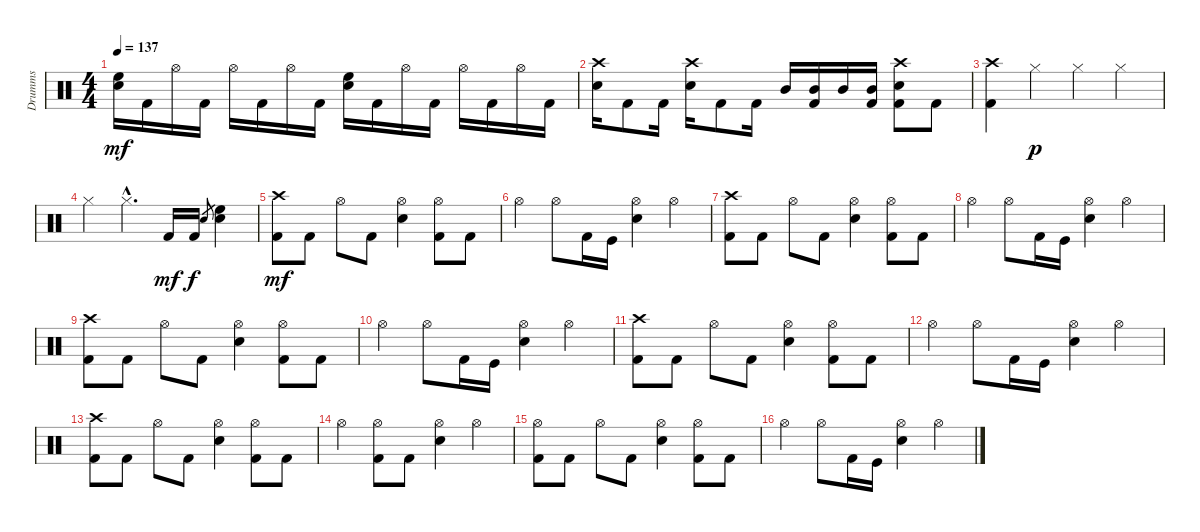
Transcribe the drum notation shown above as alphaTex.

\track ("Drumms" "Drumms") {instrument percussion}
\staff {score}
\articulation defaults
\ts (4 4)
\tempo 137
\clef neutral
\ks c
("Snare (hit) 2" "High Floor Tom (hit)").16{dy mf} "Kick (hit) 2".16 "Hi-Hat (open)".16 "Kick (hit) 2".16 "Hi-Hat (open)".16 "Kick (hit) 2".16 "Hi-Hat (open)".16 "Kick (hit) 2".16 ("Snare (hit) 2" "High Floor Tom (hit)").16 "Kick (hit) 2".16 "Hi-Hat (open)".16 "Kick (hit) 2".16 "Hi-Hat (open)".16 "Kick (hit) 2".16 "Hi-Hat (open)".16 "Kick (hit) 2".16 |
("Snare (hit) 2" "Crash high (hit)").16 "Kick (hit) 2".8 "Kick (hit) 2".16 ("Snare (hit) 2" "Crash high (hit)").16 "Kick (hit) 2".8 "Kick (hit) 2".16 "Mid Tom (hit)".16 ("Mid Tom (hit)" "Kick (hit) 2").16 "Mid Tom (hit)".16 ("Kick (hit) 2" "Mid Tom (hit)").16 ("Crash high (hit)" "Snare (hit) 2" "Kick (hit) 2").8 "Kick (hit) 2".8 |
("Crash high (hit)" "Kick (hit) 2").4 "Hi-Hat (closed)".4{dy p} "Hi-Hat (closed)".4 "Hi-Hat (closed)".4 |
"Hi-Hat (closed)".4 "Hi-Hat (closed)"{hac}.4{d} "Kick (hit) 2".16{dy mf} "Kick (hit) 2".16{dy f} "Snare (hit) 2".8{gr} ("Snare (hit) 2" "High Floor Tom (hit)").4 |
\section ("" "")
("Crash high (hit)" "Kick (hit) 2").8{dy mf} "Kick (hit) 2".8 "Hi-Hat (open)".8 "Kick (hit) 2".8 ("Snare (hit) 2" "Hi-Hat (open)").4 ("Hi-Hat (open)" "Kick (hit) 2").8 "Kick (hit) 2".8 |
"Hi-Hat (open)".4 "Hi-Hat (open)".8 "Kick (hit) 2".16 "Kick (hit)".16 ("Hi-Hat (open)" "Snare (hit) 2").4 "Hi-Hat (open)".4 |
("Crash high (hit)" "Kick (hit) 2").8 "Kick (hit) 2".8 "Hi-Hat (open)".8 "Kick (hit) 2".8 ("Snare (hit) 2" "Hi-Hat (open)").4 ("Hi-Hat (open)" "Kick (hit) 2").8 "Kick (hit) 2".8 |
"Hi-Hat (open)".4 "Hi-Hat (open)".8 "Kick (hit) 2".16 "Kick (hit)".16 ("Hi-Hat (open)" "Snare (hit) 2").4 "Hi-Hat (open)".4 |
("Crash high (hit)" "Kick (hit) 2").8 "Kick (hit) 2".8 "Hi-Hat (open)".8 "Kick (hit) 2".8 ("Snare (hit) 2" "Hi-Hat (open)").4 ("Hi-Hat (open)" "Kick (hit) 2").8 "Kick (hit) 2".8 |
"Hi-Hat (open)".4 "Hi-Hat (open)".8 "Kick (hit) 2".16 "Kick (hit)".16 ("Hi-Hat (open)" "Snare (hit) 2").4 "Hi-Hat (open)".4 |
("Crash high (hit)" "Kick (hit) 2").8 "Kick (hit) 2".8 "Hi-Hat (open)".8 "Kick (hit) 2".8 ("Snare (hit) 2" "Hi-Hat (open)").4 ("Hi-Hat (open)" "Kick (hit) 2").8 "Kick (hit) 2".8 |
"Hi-Hat (open)".4 "Hi-Hat (open)".8 "Kick (hit) 2".16 "Kick (hit)".16 ("Hi-Hat (open)" "Snare (hit) 2").4 "Hi-Hat (open)".4 |
("Crash high (hit)" "Kick (hit) 2").8 "Kick (hit) 2".8 "Hi-Hat (open)".8 "Kick (hit) 2".8 ("Snare (hit) 2" "Hi-Hat (open)").4 ("Hi-Hat (open)" "Kick (hit) 2").8 "Kick (hit) 2".8 |
"Hi-Hat (open)".4 ("Hi-Hat (open)" "Kick (hit) 2").8 "Kick (hit) 2".8 ("Hi-Hat (open)" "Snare (hit) 2").4 "Hi-Hat (open)".4 |
("Hi-Hat (open)" "Kick (hit) 2").8 "Kick (hit) 2".8 "Hi-Hat (open)".8 "Kick (hit) 2".8 ("Hi-Hat (open)" "Snare (hit) 2").4 ("Hi-Hat (open)" "Kick (hit) 2").8 "Kick (hit) 2".8 |
"Hi-Hat (open)".4 "Hi-Hat (open)".8 "Kick (hit) 2".16 "Kick (hit)".16 ("Hi-Hat (open)" "Snare (hit) 2").4 "Hi-Hat (open)".4
